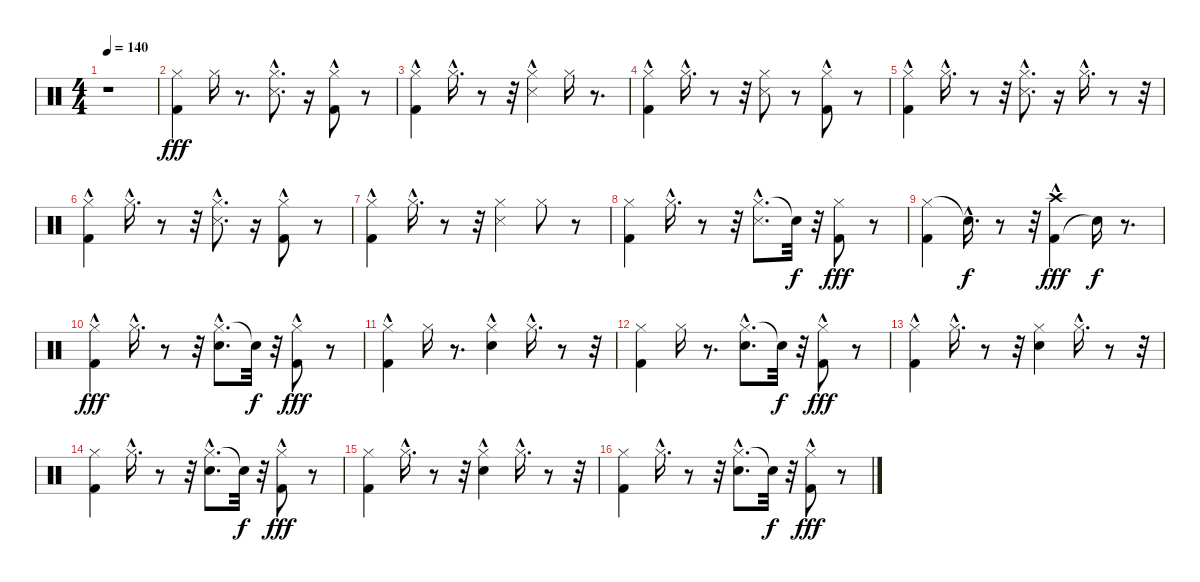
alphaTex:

\track "" {instrument percussion}
\staff {score}
\articulation defaults
\ts (4 4)
\tempo 140
\clef neutral
\ks c
r.1{dy fff} |
("Kick (hit) 2" "Hi-Hat (closed)").4 "Hi-Hat (closed)".16 r.8{d} ("Snare (side stick) 3"{hac} "Hi-Hat (closed)"{hac}).8{d} r.16 ("Hi-Hat (closed)"{hac} "Kick (hit) 2").8 r.8 |
("Kick (hit) 2" "Hi-Hat (closed)"{hac}).4 "Hi-Hat (closed)"{hac}.16{d} r.8 r.32 ("Hi-Hat (closed)"{hac} "Snare (side stick) 3").4 "Hi-Hat (closed)".16 r.8{d} |
("Hi-Hat (closed)"{hac} "Kick (hit) 2").4 "Hi-Hat (closed)"{hac}.16{d} r.8 r.32 ("Hi-Hat (closed)" "Snare (side stick) 3").8 r.8 ("Hi-Hat (closed)"{hac} "Kick (hit) 2").8 r.8 |
("Hi-Hat (closed)"{hac} "Kick (hit) 2").4 "Hi-Hat (closed)"{hac}.16{d} r.8 r.32 ("Hi-Hat (closed)" "Snare (side stick) 3"{hac}).8{d} r.16 "Hi-Hat (closed)"{hac}.16{d} r.8 r.32 |
("Hi-Hat (closed)"{hac} "Kick (hit) 2").4 "Hi-Hat (closed)"{hac}.16{d} r.8 r.32 ("Hi-Hat (closed)"{hac} "Snare (side stick) 3"{hac}).8{d} r.16 ("Hi-Hat (closed)"{hac} "Kick (hit) 2").8 r.8 |
("Hi-Hat (closed)"{hac} "Kick (hit) 2").4 "Hi-Hat (closed)"{hac}.16{d} r.8 r.32 ("Hi-Hat (closed)" "Snare (side stick) 3").4 "Hi-Hat (closed)".8 r.8 |
("Kick (hit) 2" "Hi-Hat (closed)").4 "Hi-Hat (closed)"{hac}.16{d} r.8 r.32 ("Hi-Hat (closed)"{hac} "Snare (side stick) 3"{hac}).8{d} "Snare (hit)"{t}.32{dy f} r.32 ("Kick (hit) 2" "Hi-Hat (closed)").8{dy fff} r.8 |
("Hi-Hat (closed)" "Kick (hit) 2").4 "Snare (hit)"{hac t}.16{d dy f} r.8 r.32 ("Kick (hit) 2" "Crash high (hit)"{hac}).4{dy fff} "Snare (hit)"{t}.16{dy f} r.8{d} |
("Kick (hit) 2"{hac} "Hi-Hat (closed)").4{dy fff} "Hi-Hat (closed)"{hac}.16{d} r.8 r.32 ("Hi-Hat (closed)"{hac} "Snare (hit) 2"{hac}).8{d} "Snare (hit)"{t}.32{dy f} r.32 ("Hi-Hat (closed)"{hac} "Kick (hit) 2").8{dy fff} r.8 |
("Hi-Hat (closed)" "Kick (hit) 2"{hac}).4 "Hi-Hat (closed)".16 r.8{d} ("Hi-Hat (closed)"{hac} "Snare (hit) 2"{hac}).4 "Hi-Hat (closed)"{hac}.16{d} r.8 r.32 |
("Hi-Hat (closed)" "Kick (hit) 2").4 "Hi-Hat (closed)".16 r.8{d} ("Hi-Hat (closed)"{hac} "Snare (hit) 2"{hac}).8{d} "Snare (hit)"{t}.32{dy f} r.32 ("Hi-Hat (closed)"{hac} "Kick (hit) 2").8{dy fff} r.8 |
("Kick (hit) 2" "Hi-Hat (closed)"{hac}).4 "Hi-Hat (closed)"{hac}.16{d} r.8 r.32 ("Hi-Hat (closed)" "Snare (hit) 2").4 "Hi-Hat (closed)"{hac}.16{d} r.8 r.32 |
("Hi-Hat (closed)" "Kick (hit) 2").4 "Hi-Hat (closed)"{hac}.16{d} r.8 r.32 ("Hi-Hat (closed)" "Snare (hit) 2"{hac}).8{d} "Snare (hit)"{t}.32{dy f} r.32 ("Hi-Hat (closed)"{hac} "Kick (hit) 2").8{dy fff} r.8 |
("Hi-Hat (closed)" "Kick (hit) 2").4 "Hi-Hat (closed)"{hac}.16{d} r.8 r.32 ("Snare (hit) 2"{hac} "Hi-Hat (closed)"{hac}).4 "Hi-Hat (closed)"{hac}.16{d} r.8 r.32 |
("Hi-Hat (closed)" "Kick (hit) 2").4 "Hi-Hat (closed)"{hac}.16{d} r.8 r.32 ("Hi-Hat (closed)" "Snare (hit) 2"{hac}).8{d} "Snare (hit)"{t}.32{dy f} r.32 ("Hi-Hat (closed)"{hac} "Kick (hit) 2").8{dy fff} r.8
